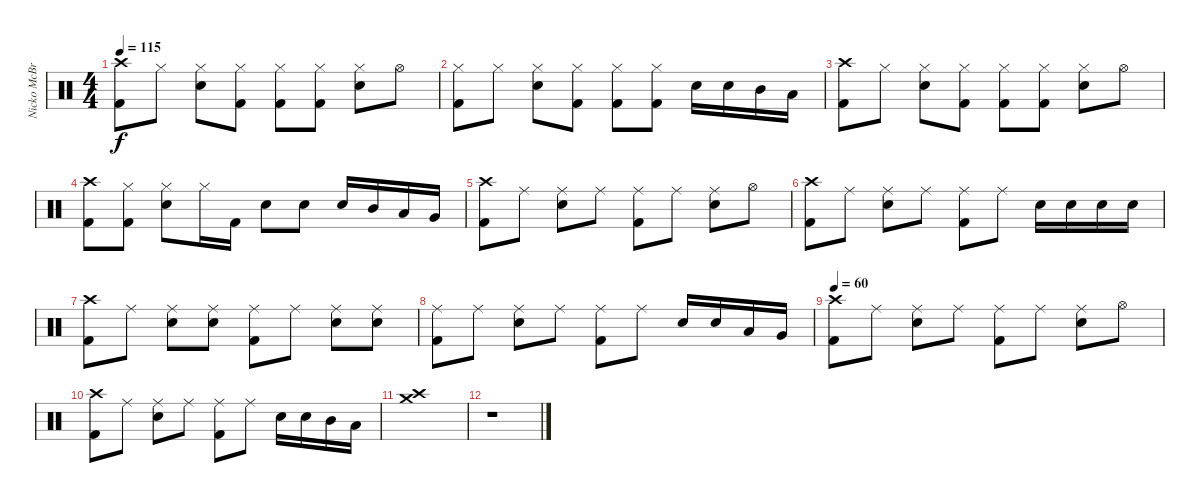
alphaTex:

\track ("Nicko McBrain" "Nicko McBr") {instrument percussion}
\staff {score}
\articulation defaults
\ts (4 4)
\tempo 115
\clef neutral
\ks c
("Crash high (hit)" "Kick (hit) 2").8{dy f} "Hi-Hat (closed)".8 ("Hi-Hat (closed)" "Electric Snare (hit)").8 ("Hi-Hat (closed)" "Kick (hit) 2").8 ("Hi-Hat (closed)" "Kick (hit) 2").8 ("Hi-Hat (closed)" "Kick (hit) 2").8 ("Hi-Hat (closed)" "Electric Snare (hit)").8 "Hi-Hat (open)".8 |
("Hi-Hat (closed)" "Kick (hit) 2").8 "Hi-Hat (closed)".8 ("Hi-Hat (closed)" "Electric Snare (hit)").8 ("Hi-Hat (closed)" "Kick (hit) 2").8 ("Hi-Hat (closed)" "Kick (hit) 2").8 ("Hi-Hat (closed)" "Kick (hit) 2").8 "Electric Snare (hit)".16 "Electric Snare (hit)".16 "Mid Tom (hit)".16 "Low Tom (hit)".16 |
("Crash high (hit)" "Kick (hit) 2").8 "Hi-Hat (closed)".8 ("Hi-Hat (closed)" "Electric Snare (hit)").8 ("Hi-Hat (closed)" "Kick (hit) 2").8 ("Hi-Hat (closed)" "Kick (hit) 2").8 ("Hi-Hat (closed)" "Kick (hit) 2").8 ("Hi-Hat (closed)" "Electric Snare (hit)").8 "Hi-Hat (open)".8 |
("Crash high (hit)" "Kick (hit) 2").8 ("Hi-Hat (closed)" "Kick (hit) 2").8 ("Hi-Hat (closed)" "Electric Snare (hit)").8 "Hi-Hat (closed)".16 "Kick (hit) 2".16 "Electric Snare (hit)".8 "Electric Snare (hit)".8 "Electric Snare (hit)".16 "Mid Tom (hit)".16 "Low Tom (hit)".16 "Very Low Tom (hit)".16 |
("Crash high (hit)" "Kick (hit) 2").8 "Ride (middle)".8 ("Ride (middle)" "Electric Snare (hit)").8 "Ride (middle)".8 ("Ride (middle)" "Kick (hit) 2").8 "Ride (middle)".8 ("Ride (middle)" "Electric Snare (hit)").8 "Hi-Hat (open)".8 |
("Crash high (hit)" "Kick (hit) 2").8 "Ride (middle)".8 ("Ride (middle)" "Electric Snare (hit)").8 "Ride (middle)".8 ("Ride (middle)" "Kick (hit) 2").8 "Ride (middle)".8 "Electric Snare (hit)".16 "Electric Snare (hit)".16 "Electric Snare (hit)".16 "Electric Snare (hit)".16 |
("Crash high (hit)" "Kick (hit) 2").8 "Ride (middle)".8 ("Ride (middle)" "Electric Snare (hit)").8 ("Ride (middle)" "Electric Snare (hit)").8 ("Ride (middle)" "Kick (hit) 2").8 "Ride (middle)".8 ("Ride (middle)" "Electric Snare (hit)").8 ("Ride (middle)" "Electric Snare (hit)").8 |
("Ride (middle)" "Kick (hit) 2").8 "Ride (middle)".8 ("Ride (middle)" "Electric Snare (hit)").8 "Ride (middle)".8 ("Ride (middle)" "Kick (hit) 2").8 "Ride (middle)".8 "Electric Snare (hit)".16 "Electric Snare (hit)".16 "Low Tom (hit)".16 "Very Low Tom (hit)".16 |
\tempo 60
("Crash high (hit)" "Kick (hit) 2").8 "Ride (middle)".8 ("Ride (middle)" "Electric Snare (hit)").8 "Ride (middle)".8 ("Ride (middle)" "Kick (hit) 2").8 "Ride (middle)".8 ("Ride (middle)" "Electric Snare (hit)").8 "Hi-Hat (open)".8 |
("Crash high (hit)" "Kick (hit) 2").8 "Ride (middle)".8 ("Ride (middle)" "Electric Snare (hit)").8 "Ride (middle)".8 ("Ride (middle)" "Kick (hit) 2").8 "Ride (middle)".8 "Electric Snare (hit)".16 "Electric Snare (hit)".16 "Mid Tom (hit)".16 "Low Tom (hit)".16 |
("Crash high (hit)" "Crash medium (hit)").1 |
r.1
